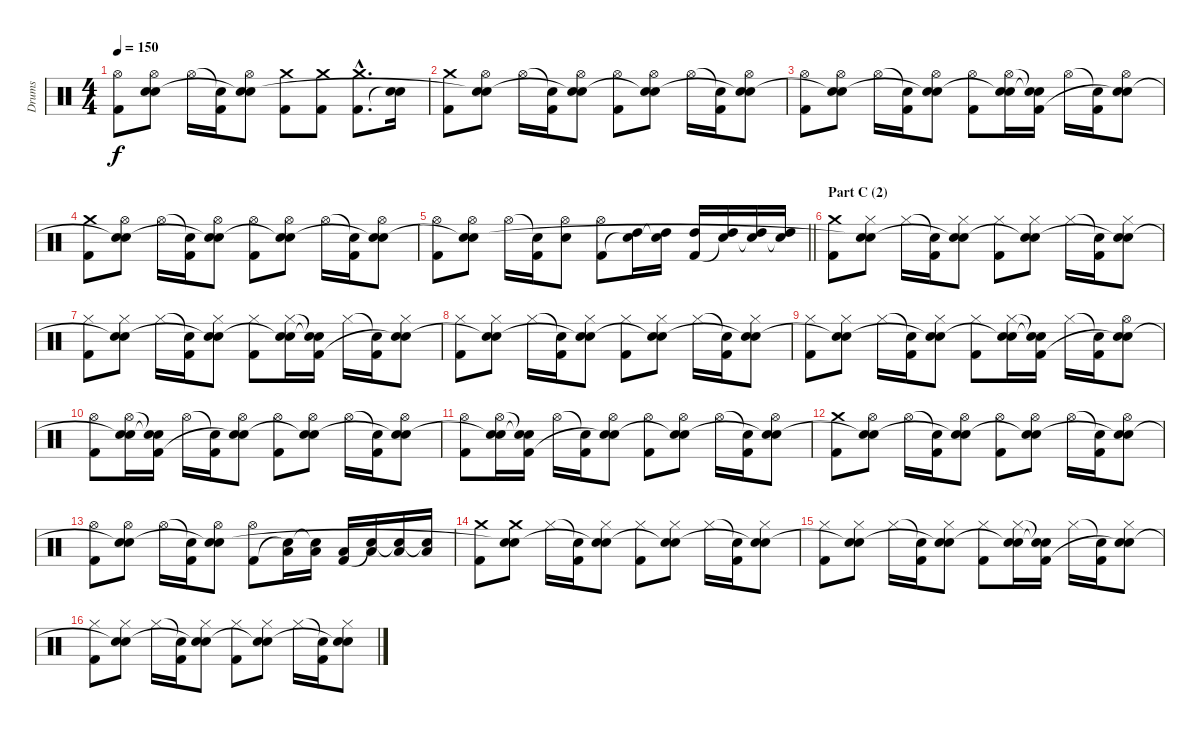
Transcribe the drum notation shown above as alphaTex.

\track ("Drums" "Drums") {instrument percussion}
\staff {score}
\articulation defaults
\ts (4 4)
\tempo 150
\clef neutral
\ks c
("Hi-Hat (open)" "Kick (hit) 2").8{dy f} ("Hi-Hat (open)" "Electric Snare (hit)" "Snare (hit)"{t}).8 "Hi-Hat (open)".16 ("Snare (hit)"{t} "Kick (hit) 2").16 ("Hi-Hat (open)" "Electric Snare (hit)" "Snare (hit)"{t}).8 ("Crash medium (hit)" "Kick (hit) 2").8 ("Crash medium (hit)" "Kick (hit) 2").8 ("Crash medium (hit)"{hac} "Kick (hit) 2"{hac}).8{d} ("Electric Snare (hit)" "Snare (hit)"{t}).16 |
("Crash medium (hit)" "Kick (hit) 2").8 ("Hi-Hat (open)" "Electric Snare (hit)" "Snare (hit)"{t}).8 "Hi-Hat (open)".16 ("Snare (hit)"{t} "Kick (hit) 2").16 ("Hi-Hat (open)" "Electric Snare (hit)" "Snare (hit)"{t}).8 ("Hi-Hat (open)" "Kick (hit) 2").8 ("Hi-Hat (open)" "Electric Snare (hit)" "Snare (hit)"{t}).8 "Hi-Hat (open)".16 ("Snare (hit)"{t} "Kick (hit) 2").16 ("Hi-Hat (open)" "Electric Snare (hit)" "Snare (hit)"{t}).8 |
("Hi-Hat (open)" "Kick (hit) 2").8 ("Hi-Hat (open)" "Electric Snare (hit)" "Snare (hit)"{t}).8 "Hi-Hat (open)".16 ("Snare (hit)"{t} "Kick (hit) 2").16 ("Hi-Hat (open)" "Electric Snare (hit)" "Snare (hit)"{t}).8 ("Hi-Hat (open)" "Kick (hit) 2").8 ("Hi-Hat (open)" "Electric Snare (hit)" "Snare (hit)"{t}).16 ("Snare (hit)"{t} "Snare (hit)"{t} "Kick (hit) 2").16 "Hi-Hat (open)".16 ("Snare (hit)"{t} "Kick (hit) 2").16 ("Hi-Hat (open)" "Electric Snare (hit)" "Snare (hit)"{t}).8 |
("Crash medium (hit)" "Kick (hit) 2").8 ("Hi-Hat (open)" "Electric Snare (hit)" "Snare (hit)"{t}).8 "Hi-Hat (open)".16 ("Snare (hit)"{t} "Kick (hit) 2").16 ("Hi-Hat (open)" "Electric Snare (hit)" "Snare (hit)"{t}).8 ("Hi-Hat (open)" "Kick (hit) 2").8 ("Hi-Hat (open)" "Electric Snare (hit)" "Snare (hit)"{t}).8 "Hi-Hat (open)".16 ("Snare (hit)"{t} "Kick (hit) 2").16 ("Hi-Hat (open)" "Electric Snare (hit)" "Snare (hit)"{t}).8 |
\barLineRight lightlight
("Hi-Hat (open)" "Kick (hit) 2").8 ("Hi-Hat (open)" "Electric Snare (hit)" "Snare (hit)"{t}).8 "Hi-Hat (open)".16 ("Snare (hit)"{t} "Kick (hit) 2").16 ("Hi-Hat (open)" "Electric Snare (hit)").8 ("Hi-Hat (open)" "Kick (hit) 2").8 ("High Tom (hit)" "Snare (hit)"{t}).16 ("High Tom (hit)" "Snare (hit)"{t}).16 ("High Tom (hit)" "Kick (hit) 2").16 ("High Tom (hit)" "Snare (hit)"{t}).16 ("High Tom (hit)" "Snare (hit)"{t}).16 ("High Tom (hit)" "Snare (hit)"{t}).16 |
\section ("" "Part C (2)")
("Crash medium (hit)" "Kick (hit) 2").8 ("Hi-Hat (closed)" "Electric Snare (hit)" "Snare (hit)"{t}).8 "Hi-Hat (closed)".16 ("Snare (hit)"{t} "Kick (hit) 2").16 ("Hi-Hat (closed)" "Electric Snare (hit)" "Snare (hit)"{t}).8 ("Hi-Hat (closed)" "Kick (hit) 2").8 ("Hi-Hat (closed)" "Electric Snare (hit)" "Snare (hit)"{t}).8 "Hi-Hat (closed)".16 ("Snare (hit)"{t} "Kick (hit) 2").16 ("Hi-Hat (closed)" "Electric Snare (hit)" "Snare (hit)"{t}).8 |
("Hi-Hat (closed)" "Kick (hit) 2").8 ("Hi-Hat (closed)" "Electric Snare (hit)" "Snare (hit)"{t}).8 "Hi-Hat (closed)".16 ("Snare (hit)"{t} "Kick (hit) 2").16 ("Hi-Hat (closed)" "Electric Snare (hit)" "Snare (hit)"{t}).8 ("Hi-Hat (closed)" "Kick (hit) 2").8 ("Hi-Hat (closed)" "Electric Snare (hit)" "Snare (hit)"{t}).16 ("Snare (hit)"{t} "Snare (hit)"{t} "Kick (hit) 2").16 "Hi-Hat (closed)".16 ("Snare (hit)"{t} "Kick (hit) 2").16 ("Hi-Hat (closed)" "Electric Snare (hit)" "Snare (hit)"{t}).8 |
("Hi-Hat (closed)" "Kick (hit) 2").8 ("Hi-Hat (closed)" "Electric Snare (hit)" "Snare (hit)"{t}).8 "Hi-Hat (closed)".16 ("Snare (hit)"{t} "Kick (hit) 2").16 ("Hi-Hat (closed)" "Electric Snare (hit)" "Snare (hit)"{t}).8 ("Hi-Hat (closed)" "Kick (hit) 2").8 ("Hi-Hat (closed)" "Electric Snare (hit)" "Snare (hit)"{t}).8 "Hi-Hat (closed)".16 ("Snare (hit)"{t} "Kick (hit) 2").16 ("Hi-Hat (closed)" "Electric Snare (hit)" "Snare (hit)"{t}).8 |
("Hi-Hat (closed)" "Kick (hit) 2").8 ("Hi-Hat (closed)" "Electric Snare (hit)" "Snare (hit)"{t}).8 "Hi-Hat (closed)".16 ("Snare (hit)"{t} "Kick (hit) 2").16 ("Hi-Hat (closed)" "Electric Snare (hit)" "Snare (hit)"{t}).8 ("Hi-Hat (closed)" "Kick (hit) 2").8 ("Hi-Hat (closed)" "Electric Snare (hit)" "Snare (hit)"{t}).16 ("Snare (hit)"{t} "Snare (hit)"{t} "Kick (hit) 2").16 "Hi-Hat (closed)".16 ("Snare (hit)"{t} "Kick (hit) 2").16 ("Hi-Hat (open)" "Electric Snare (hit)" "Snare (hit)"{t}).8 |
("Hi-Hat (open)" "Kick (hit) 2").8 ("Hi-Hat (open)" "Electric Snare (hit)" "Snare (hit)"{t}).16 ("Snare (hit)"{t} "Snare (hit)"{t} "Kick (hit) 2").16 "Hi-Hat (open)".16 ("Snare (hit)"{t} "Kick (hit) 2").16 ("Hi-Hat (open)" "Electric Snare (hit)" "Snare (hit)"{t}).8 ("Hi-Hat (open)" "Kick (hit) 2").8 ("Hi-Hat (open)" "Electric Snare (hit)" "Snare (hit)"{t}).8 "Hi-Hat (open)".16 ("Snare (hit)"{t} "Kick (hit) 2").16 ("Hi-Hat (open)" "Electric Snare (hit)" "Snare (hit)"{t}).8 |
("Hi-Hat (open)" "Kick (hit) 2").8 ("Hi-Hat (open)" "Electric Snare (hit)" "Snare (hit)"{t}).16 ("Snare (hit)"{t} "Snare (hit)"{t} "Kick (hit) 2").16 "Hi-Hat (open)".16 ("Snare (hit)"{t} "Kick (hit) 2").16 ("Hi-Hat (open)" "Electric Snare (hit)" "Snare (hit)"{t}).8 ("Hi-Hat (open)" "Kick (hit) 2").8 ("Hi-Hat (open)" "Electric Snare (hit)" "Snare (hit)"{t}).8 "Hi-Hat (open)".16 ("Snare (hit)"{t} "Kick (hit) 2").16 ("Hi-Hat (open)" "Electric Snare (hit)" "Snare (hit)"{t}).8 |
("Crash medium (hit)" "Kick (hit) 2").8 ("Hi-Hat (open)" "Electric Snare (hit)" "Snare (hit)"{t}).8 "Hi-Hat (open)".16 ("Snare (hit)"{t} "Kick (hit) 2").16 ("Hi-Hat (open)" "Electric Snare (hit)" "Snare (hit)"{t}).8 ("Hi-Hat (open)" "Kick (hit) 2").8 ("Hi-Hat (open)" "Electric Snare (hit)" "Snare (hit)"{t}).8 "Hi-Hat (open)".16 ("Snare (hit)"{t} "Kick (hit) 2").16 ("Hi-Hat (open)" "Electric Snare (hit)" "Snare (hit)"{t}).8 |
("Hi-Hat (open)" "Kick (hit) 2").8 ("Hi-Hat (open)" "Electric Snare (hit)" "Snare (hit)"{t}).8 "Hi-Hat (open)".16 ("Snare (hit)"{t} "Kick (hit) 2").16 ("Hi-Hat (open)" "Electric Snare (hit)" "Snare (hit)"{t}).8 ("Hi-Hat (open)" "Kick (hit) 2").8 ("Low Tom (hit)" "Snare (hit)"{t}).16 ("Low Tom (hit)" "Snare (hit)"{t}).16 ("Low Tom (hit)" "Kick (hit) 2").16 ("Low Tom (hit)" "Snare (hit)"{t}).16 ("Low Tom (hit)" "Snare (hit)"{t}).16 ("Low Tom (hit)" "Snare (hit)"{t}).16 |
("Crash medium (hit)" "Kick (hit) 2").8 ("Crash medium (hit)" "Electric Snare (hit)" "Snare (hit)"{t}).8 "Hi-Hat (closed)".16 ("Snare (hit)"{t} "Kick (hit) 2").16 ("Hi-Hat (closed)" "Electric Snare (hit)" "Snare (hit)"{t}).8 ("Hi-Hat (closed)" "Kick (hit) 2").8 ("Hi-Hat (closed)" "Electric Snare (hit)" "Snare (hit)"{t}).8 "Hi-Hat (closed)".16 ("Snare (hit)"{t} "Kick (hit) 2").16 ("Hi-Hat (closed)" "Electric Snare (hit)" "Snare (hit)"{t}).8 |
("Hi-Hat (closed)" "Kick (hit) 2").8 ("Hi-Hat (closed)" "Electric Snare (hit)" "Snare (hit)"{t}).8 "Hi-Hat (closed)".16 ("Snare (hit)"{t} "Kick (hit) 2").16 ("Hi-Hat (closed)" "Electric Snare (hit)" "Snare (hit)"{t}).8 ("Hi-Hat (closed)" "Kick (hit) 2").8 ("Hi-Hat (closed)" "Electric Snare (hit)" "Snare (hit)"{t}).16 ("Snare (hit)"{t} "Snare (hit)"{t} "Kick (hit) 2").16 "Hi-Hat (closed)".16 ("Snare (hit)"{t} "Kick (hit) 2").16 ("Hi-Hat (closed)" "Electric Snare (hit)" "Snare (hit)"{t}).8 |
("Hi-Hat (closed)" "Kick (hit) 2").8 ("Hi-Hat (closed)" "Electric Snare (hit)" "Snare (hit)"{t}).8 "Hi-Hat (closed)".16 ("Snare (hit)"{t} "Kick (hit) 2").16 ("Hi-Hat (closed)" "Electric Snare (hit)" "Snare (hit)"{t}).8 ("Hi-Hat (closed)" "Kick (hit) 2").8 ("Hi-Hat (closed)" "Electric Snare (hit)" "Snare (hit)"{t}).8 "Hi-Hat (closed)".16 ("Snare (hit)"{t} "Kick (hit) 2").16 ("Hi-Hat (closed)" "Electric Snare (hit)" "Snare (hit)"{t}).8
